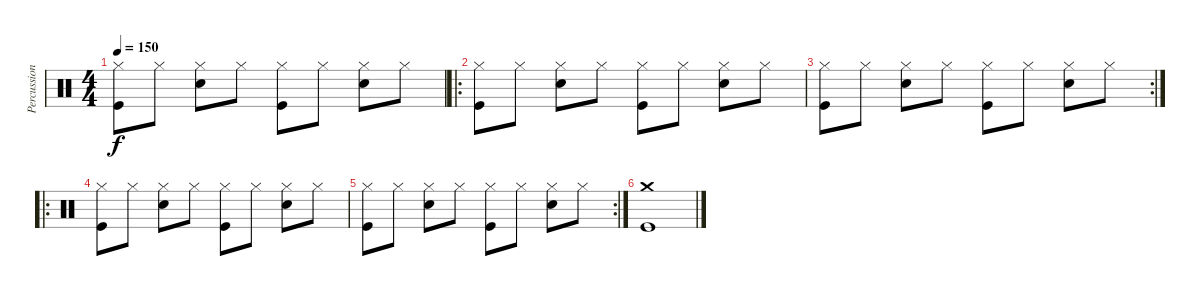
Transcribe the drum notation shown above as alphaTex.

\track ("Percussion" "Percussion") {instrument percussion}
\staff {score}
\articulation defaults
\ts (4 4)
\tempo 150
\clef neutral
\ks c
("Hi-Hat (closed)" "Kick (hit)").8{dy f} "Hi-Hat (closed)".8 ("Hi-Hat (closed)" "Snare (hit) 2").8 "Hi-Hat (closed)".8 ("Hi-Hat (closed)" "Kick (hit)").8 "Hi-Hat (closed)".8 ("Hi-Hat (closed)" "Snare (hit) 2").8 "Hi-Hat (closed)".8 |
\ro
("Hi-Hat (closed)" "Kick (hit)").8 "Hi-Hat (closed)".8 ("Hi-Hat (closed)" "Snare (hit) 2").8 "Hi-Hat (closed)".8 ("Hi-Hat (closed)" "Kick (hit)").8 "Hi-Hat (closed)".8 ("Hi-Hat (closed)" "Snare (hit) 2").8 "Hi-Hat (closed)".8 |
\rc 2
("Hi-Hat (closed)" "Kick (hit)").8 "Hi-Hat (closed)".8 ("Hi-Hat (closed)" "Snare (hit) 2").8 "Hi-Hat (closed)".8 ("Hi-Hat (closed)" "Kick (hit)").8 "Hi-Hat (closed)".8 ("Hi-Hat (closed)" "Snare (hit) 2").8 "Hi-Hat (closed)".8 |
\ro
("Hi-Hat (closed)" "Kick (hit)").8 "Hi-Hat (closed)".8 ("Hi-Hat (closed)" "Snare (hit) 2").8 "Hi-Hat (closed)".8 ("Hi-Hat (closed)" "Kick (hit)").8 "Hi-Hat (closed)".8 ("Hi-Hat (closed)" "Snare (hit) 2").8 "Hi-Hat (closed)".8 |
\rc 2
("Hi-Hat (closed)" "Kick (hit)").8 "Hi-Hat (closed)".8 ("Hi-Hat (closed)" "Snare (hit) 2").8 "Hi-Hat (closed)".8 ("Hi-Hat (closed)" "Kick (hit)").8 "Hi-Hat (closed)".8 ("Hi-Hat (closed)" "Snare (hit) 2").8 "Hi-Hat (closed)".8 |
("Crash medium (hit)" "Kick (hit)").1
